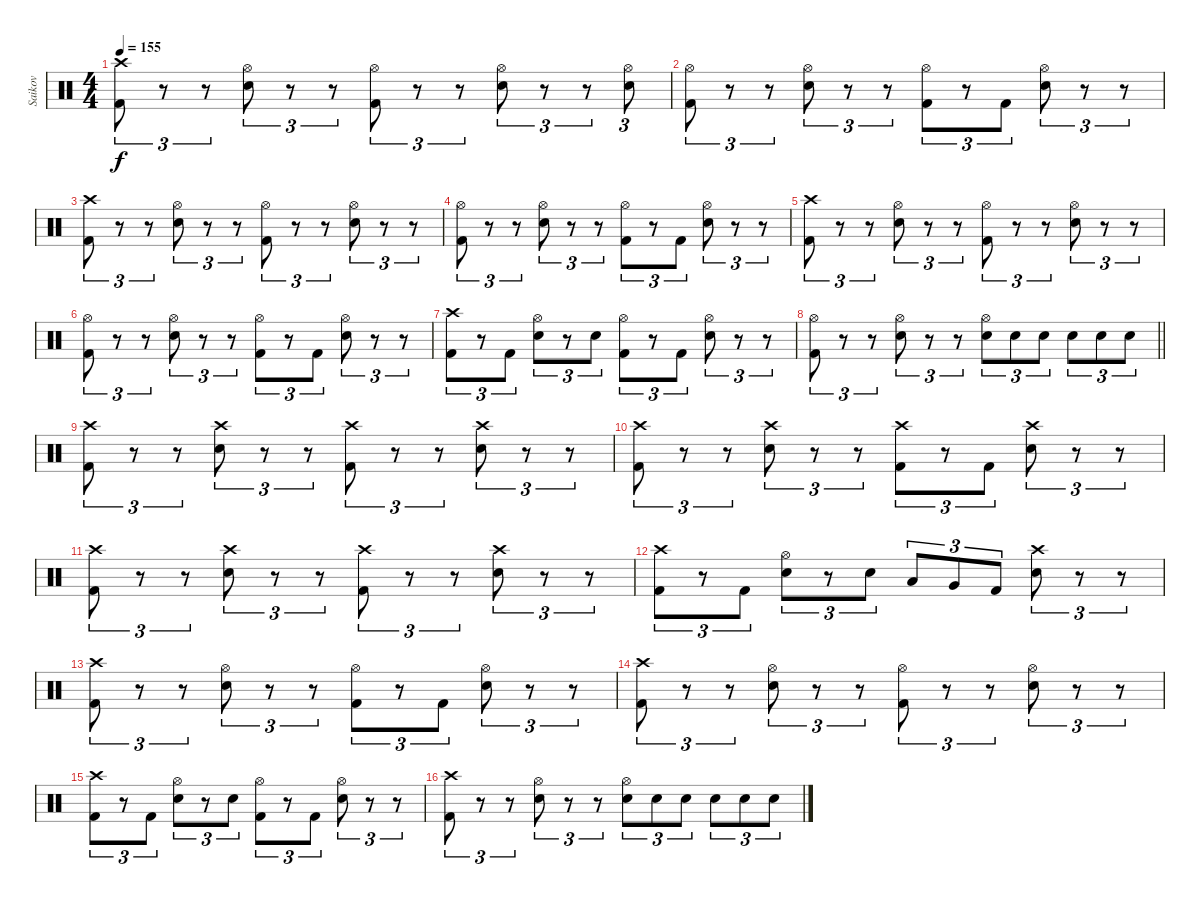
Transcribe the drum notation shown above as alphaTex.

\track ("Saikov" "Saikov") {instrument percussion}
\staff {score}
\articulation defaults
\ts (4 4)
\tempo 155
\clef neutral
\ks c
("Crash high (hit)" "Kick (hit) 2").8{tu (3 2) dy f} r.8{tu (3 2)} r.8{tu (3 2)} ("Hi-Hat (open)" "Snare (hit) 2").8{tu (3 2)} r.8{tu (3 2)} r.8{tu (3 2)} ("Hi-Hat (open)" "Kick (hit) 2").8{tu (3 2)} r.8{tu (3 2)} r.8{tu (3 2)} ("Hi-Hat (open)" "Snare (hit) 2").8{tu (3 2)} r.8{tu (3 2)} r.8{tu (3 2)} ("Hi-Hat (open)" "Snare (hit) 2").8{tu (3 2)} |
("Hi-Hat (open)" "Kick (hit) 2").8{tu (3 2)} r.8{tu (3 2)} r.8{tu (3 2)} ("Hi-Hat (open)" "Snare (hit) 2").8{tu (3 2)} r.8{tu (3 2)} r.8{tu (3 2)} ("Hi-Hat (open)" "Kick (hit) 2").8{tu (3 2)} r.8{tu (3 2)} "Kick (hit) 2".8{tu (3 2)} ("Hi-Hat (open)" "Snare (hit) 2").8{tu (3 2)} r.8{tu (3 2)} r.8{tu (3 2)} |
("Crash high (hit)" "Kick (hit) 2").8{tu (3 2)} r.8{tu (3 2)} r.8{tu (3 2)} ("Hi-Hat (open)" "Snare (hit) 2").8{tu (3 2)} r.8{tu (3 2)} r.8{tu (3 2)} ("Hi-Hat (open)" "Kick (hit) 2").8{tu (3 2)} r.8{tu (3 2)} r.8{tu (3 2)} ("Hi-Hat (open)" "Snare (hit) 2").8{tu (3 2)} r.8{tu (3 2)} r.8{tu (3 2)} |
("Hi-Hat (open)" "Kick (hit) 2").8{tu (3 2)} r.8{tu (3 2)} r.8{tu (3 2)} ("Hi-Hat (open)" "Snare (hit) 2").8{tu (3 2)} r.8{tu (3 2)} r.8{tu (3 2)} ("Hi-Hat (open)" "Kick (hit) 2").8{tu (3 2)} r.8{tu (3 2)} "Kick (hit) 2".8{tu (3 2)} ("Hi-Hat (open)" "Snare (hit) 2").8{tu (3 2)} r.8{tu (3 2)} r.8{tu (3 2)} |
("Crash high (hit)" "Kick (hit) 2").8{tu (3 2)} r.8{tu (3 2)} r.8{tu (3 2)} ("Hi-Hat (open)" "Snare (hit) 2").8{tu (3 2)} r.8{tu (3 2)} r.8{tu (3 2)} ("Hi-Hat (open)" "Kick (hit) 2").8{tu (3 2)} r.8{tu (3 2)} r.8{tu (3 2)} ("Hi-Hat (open)" "Snare (hit) 2").8{tu (3 2)} r.8{tu (3 2)} r.8{tu (3 2)} |
("Hi-Hat (open)" "Kick (hit) 2").8{tu (3 2)} r.8{tu (3 2)} r.8{tu (3 2)} ("Hi-Hat (open)" "Snare (hit) 2").8{tu (3 2)} r.8{tu (3 2)} r.8{tu (3 2)} ("Hi-Hat (open)" "Kick (hit) 2").8{tu (3 2)} r.8{tu (3 2)} "Kick (hit) 2".8{tu (3 2)} ("Hi-Hat (open)" "Snare (hit) 2").8{tu (3 2)} r.8{tu (3 2)} r.8{tu (3 2)} |
("Crash high (hit)" "Kick (hit) 2").8{tu (3 2)} r.8{tu (3 2)} "Kick (hit) 2".8{tu (3 2)} ("Hi-Hat (open)" "Snare (hit) 2").8{tu (3 2)} r.8{tu (3 2)} "Snare (hit) 2".8{tu (3 2)} ("Hi-Hat (open)" "Kick (hit) 2").8{tu (3 2)} r.8{tu (3 2)} "Kick (hit) 2".8{tu (3 2)} ("Hi-Hat (open)" "Snare (hit) 2").8{tu (3 2)} r.8{tu (3 2)} r.8{tu (3 2)} |
\barLineRight lightlight
("Hi-Hat (open)" "Kick (hit) 2").8{tu (3 2)} r.8{tu (3 2)} r.8{tu (3 2)} ("Hi-Hat (open)" "Snare (hit) 2").8{tu (3 2)} r.8{tu (3 2)} r.8{tu (3 2)} ("Hi-Hat (open)" "Snare (hit) 2").8{tu (3 2)} "Snare (hit) 2".8{tu (3 2)} "Snare (hit) 2".8{tu (3 2)} "Snare (hit) 2".8{tu (3 2)} "Snare (hit) 2".8{tu (3 2)} "Snare (hit) 2".8{tu (3 2)} |
("Crash high (hit)" "Kick (hit) 2").8{tu (3 2)} r.8{tu (3 2)} r.8{tu (3 2)} ("Crash high (hit)" "Snare (hit) 2").8{tu (3 2)} r.8{tu (3 2)} r.8{tu (3 2)} ("Crash high (hit)" "Kick (hit) 2").8{tu (3 2)} r.8{tu (3 2)} r.8{tu (3 2)} ("Crash high (hit)" "Snare (hit) 2").8{tu (3 2)} r.8{tu (3 2)} r.8{tu (3 2)} |
("Crash high (hit)" "Kick (hit) 2").8{tu (3 2)} r.8{tu (3 2)} r.8{tu (3 2)} ("Crash high (hit)" "Snare (hit) 2").8{tu (3 2)} r.8{tu (3 2)} r.8{tu (3 2)} ("Crash high (hit)" "Kick (hit) 2").8{tu (3 2)} r.8{tu (3 2)} "Kick (hit) 2".8{tu (3 2)} ("Crash high (hit)" "Snare (hit) 2").8{tu (3 2)} r.8{tu (3 2)} r.8{tu (3 2)} |
("Crash high (hit)" "Kick (hit) 2").8{tu (3 2)} r.8{tu (3 2)} r.8{tu (3 2)} ("Crash high (hit)" "Snare (hit) 2").8{tu (3 2)} r.8{tu (3 2)} r.8{tu (3 2)} ("Crash high (hit)" "Kick (hit) 2").8{tu (3 2)} r.8{tu (3 2)} r.8{tu (3 2)} ("Crash high (hit)" "Snare (hit) 2").8{tu (3 2)} r.8{tu (3 2)} r.8{tu (3 2)} |
("Crash high (hit)" "Kick (hit) 2").8{tu (3 2)} r.8{tu (3 2)} "Kick (hit) 2".8{tu (3 2)} ("Hi-Hat (open)" "Snare (hit) 2").8{tu (3 2)} r.8{tu (3 2)} "Snare (hit) 2".8{tu (3 2)} "Low Tom (hit)".8{tu (3 2)} "Very Low Tom (hit)".8{tu (3 2)} "Kick (hit) 2".8{tu (3 2)} ("Crash high (hit)" "Snare (hit) 2").8{tu (3 2)} r.8{tu (3 2)} r.8{tu (3 2)} |
("Crash high (hit)" "Kick (hit) 2").8{tu (3 2)} r.8{tu (3 2)} r.8{tu (3 2)} ("Hi-Hat (open)" "Snare (hit) 2").8{tu (3 2)} r.8{tu (3 2)} r.8{tu (3 2)} ("Hi-Hat (open)" "Kick (hit) 2").8{tu (3 2)} r.8{tu (3 2)} "Kick (hit) 2".8{tu (3 2)} ("Hi-Hat (open)" "Snare (hit) 2").8{tu (3 2)} r.8{tu (3 2)} r.8{tu (3 2)} |
("Crash high (hit)" "Kick (hit) 2").8{tu (3 2)} r.8{tu (3 2)} r.8{tu (3 2)} ("Hi-Hat (open)" "Snare (hit) 2").8{tu (3 2)} r.8{tu (3 2)} r.8{tu (3 2)} ("Hi-Hat (open)" "Kick (hit) 2").8{tu (3 2)} r.8{tu (3 2)} r.8{tu (3 2)} ("Hi-Hat (open)" "Snare (hit) 2").8{tu (3 2)} r.8{tu (3 2)} r.8{tu (3 2)} |
("Crash high (hit)" "Kick (hit) 2").8{tu (3 2)} r.8{tu (3 2)} "Kick (hit) 2".8{tu (3 2)} ("Hi-Hat (open)" "Snare (hit) 2").8{tu (3 2)} r.8{tu (3 2)} "Snare (hit) 2".8{tu (3 2)} ("Hi-Hat (open)" "Kick (hit) 2").8{tu (3 2)} r.8{tu (3 2)} "Kick (hit) 2".8{tu (3 2)} ("Hi-Hat (open)" "Snare (hit) 2").8{tu (3 2)} r.8{tu (3 2)} r.8{tu (3 2)} |
("Crash high (hit)" "Kick (hit) 2").8{tu (3 2)} r.8{tu (3 2)} r.8{tu (3 2)} ("Hi-Hat (open)" "Snare (hit) 2").8{tu (3 2)} r.8{tu (3 2)} r.8{tu (3 2)} ("Hi-Hat (open)" "Snare (hit) 2").8{tu (3 2)} "Snare (hit) 2".8{tu (3 2)} "Snare (hit) 2".8{tu (3 2)} "Snare (hit) 2".8{tu (3 2)} "Snare (hit) 2".8{tu (3 2)} "Snare (hit) 2".8{tu (3 2)}
